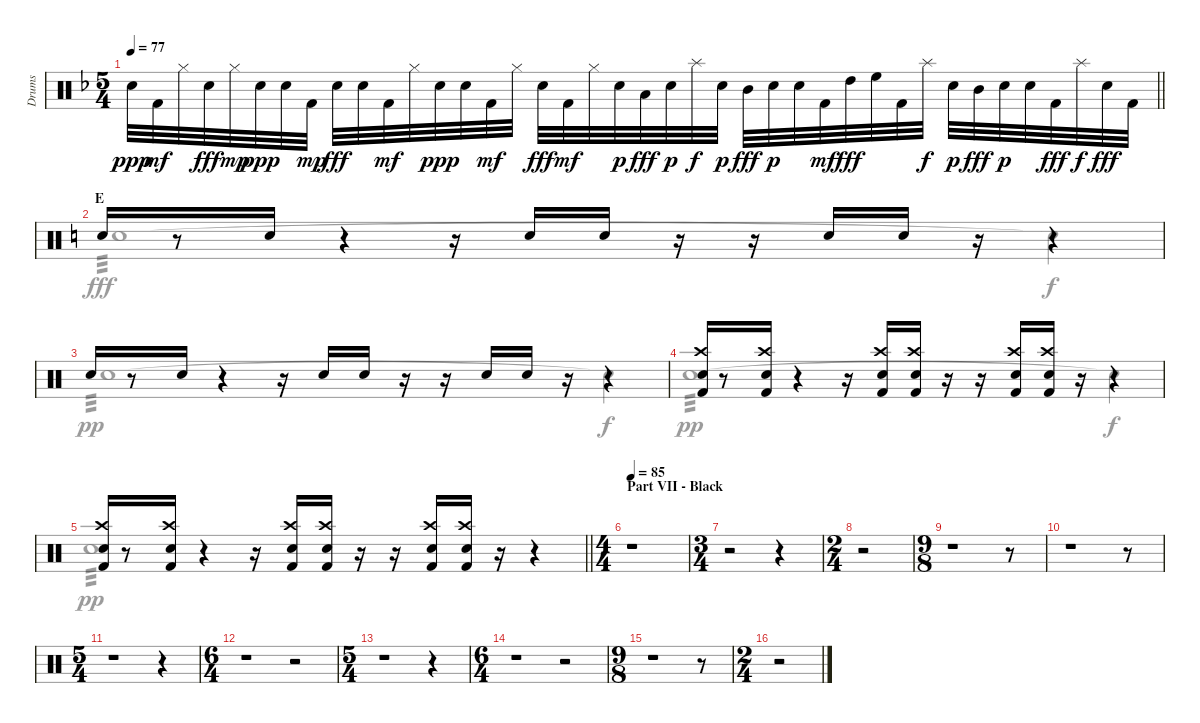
\track ("Drums" "Drums") {instrument percussion}
\staff {score}
\articulation defaults
\voice
\ts (5 4)
\tempo 77
\clef neutral
\barLineRight lightlight
\ks dminor "Snare (hit) 2".32{dy ppp} "Kick (hit) 2".32{dy mf} "Hi-Hat (closed)".32 "Snare (hit) 2".32{dy fff} "Hi-Hat (closed)".32{dy mp} "Snare (hit) 2".32{dy ppp} "Snare (hit) 2".32 "Kick (hit) 2".32{dy mp} "Snare (hit) 2".32{dy fff} "Snare (hit) 2".32 "Kick (hit) 2".32{dy mf} "Hi-Hat (closed)".32 "Snare (hit) 2".32{dy ppp} "Snare (hit) 2".32 "Kick (hit) 2".32{dy mf} "Hi-Hat (closed)".32 "Snare (hit) 2".32{dy fff} "Kick (hit) 2".32{dy mf} "Hi-Hat (closed)".32 "Snare (hit) 2".32{dy p} "Low Tom (hit)".32{dy fff} "Snare (hit) 2".32{dy p} "Splash (hit)".32{dy f} "Snare (hit) 2".32{dy p} "Mid Tom (hit)".32{dy fff} "Snare (hit) 2".32{dy p} "Snare (hit) 2".32 "Kick (hit) 2".32{dy mf} "High Tom (hit)".32{dy fff} "High Floor Tom (hit)".32 "Kick (hit) 2".32 "Splash (hit)".32{dy f} "Snare (hit) 2".32{dy p} "Mid Tom (hit)".32{dy fff} "Snare (hit) 2".32{dy p} "Snare (hit) 2".32 "Kick (hit) 2".32{dy fff} "Splash (hit)".32{dy f} "Snare (hit) 2".32{dy fff} "Kick (hit) 2".32
|
\section ("" "E")
\ks aminor "Snare (hit) 2".16
r.8 "Snare (hit) 2".16 r.4 r.16 "Snare (hit) 2".16 "Snare (hit) 2".16 r.16 r.16 "Snare (hit) 2".16 "Snare (hit) 2".16 r.16 r.4 |
"Snare (hit) 2".16 r.8 "Snare (hit) 2".16 r.4 r.16 "Snare (hit) 2".16 "Snare (hit) 2".16 r.16 r.16 "Snare (hit) 2".16 "Snare (hit) 2".16 r.16 r.4 |
("Crash high (hit)" "Snare (hit) 2" "Kick (hit) 2").16 r.8 ("Crash high (hit)" "Snare (hit) 2" "Kick (hit) 2").16 r.4 r.16 ("Crash high (hit)" "Snare (hit) 2" "Kick (hit) 2").16 ("Crash high (hit)" "Snare (hit) 2" "Kick (hit) 2").16 r.16 r.16 ("Crash high (hit)" "Snare (hit) 2" "Kick (hit) 2").16 ("Crash high (hit)" "Snare (hit) 2" "Kick (hit) 2").16 r.16 r.4 |
\barLineRight lightlight
("Crash high (hit)" "Snare (hit) 2" "Kick (hit) 2").16 r.8 ("Crash high (hit)" "Snare (hit) 2" "Kick (hit) 2").16 r.4 r.16 ("Crash high (hit)" "Snare (hit) 2" "Kick (hit) 2").16 ("Crash high (hit)" "Snare (hit) 2" "Kick (hit) 2").16 r.16 r.16 ("Crash high (hit)" "Snare (hit) 2" "Kick (hit) 2").16 ("Crash high (hit)" "Snare (hit) 2" "Kick (hit) 2").16 r.16 r.4 |
\ts (4 4)
\section ("" "Part VII - Black")
\tempo 85
r.1 |
\ts (3 4)
r.2 r.4 |
\ts (2 4)
r.2 |
\ts (9 8)
r.1 r.8 |
r.1 r.8 |
\ts (5 4)
r.1 r.4 |
\ts (6 4)
r.1 r.2 |
\ts (5 4)
r.1 r.4 |
\ts (6 4)
r.1 r.2 |
\ts (9 8)
r.1 r.8 |
\ts (2 4)
r.2
\voice
\clef neutral
\ottava regular
\simile none
\barLineRight lightlight
\ks dminor
|
\ks aminor "Electric Snare (hit)".1{tp 3} "Snare (hit)"{t}.4{dy f}
|
"Electric Snare (hit)".1{tp 3 dy pp} "Snare (hit)"{t}.4{dy f} |
"Electric Snare (hit)".1{tp 3 dy pp} "Snare (hit)"{t}.4{dy f} |
\barLineRight lightlight "Electric Snare (hit)".1{tp 3 dy pp}
r.4 |
|
|
|
|
|
|
|
|
|
|
